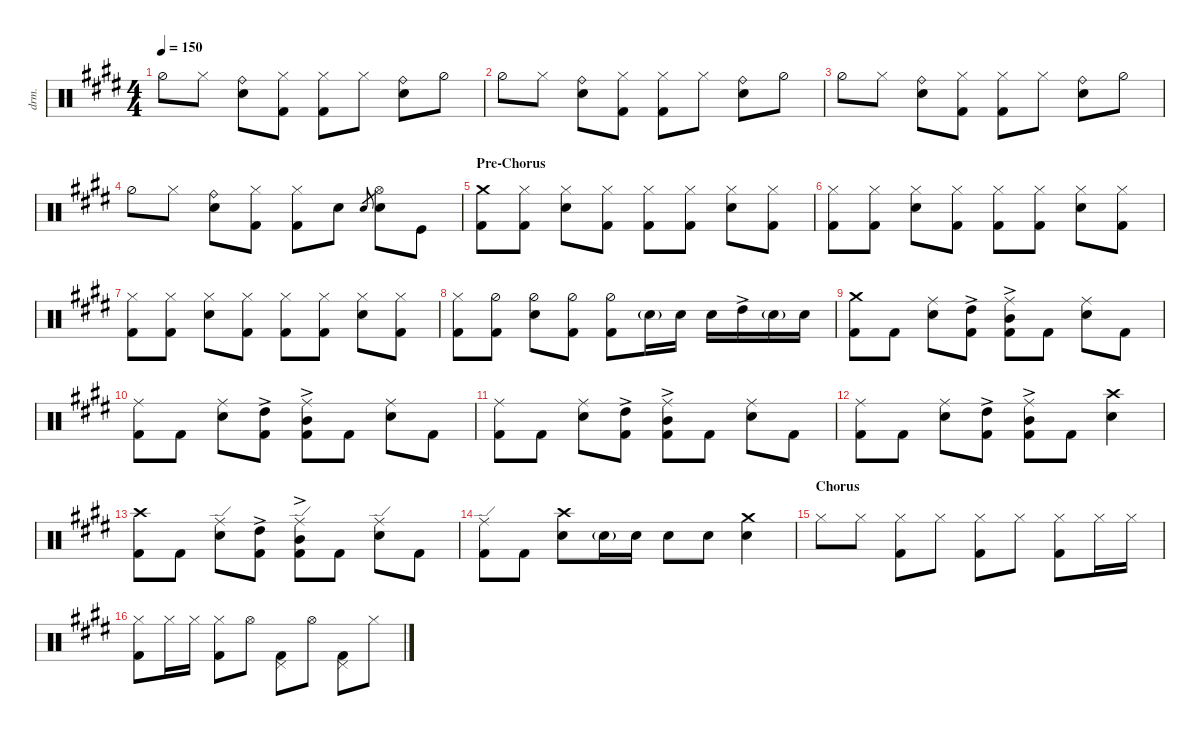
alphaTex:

\defaultSystemsLayout 4
\hideDynamics
\bracketExtendMode nobrackets
\otherSystemsTrackNameOrientation horizontal
\track ("Drums - S. Copeland" "drm.") {instrument percussion}
\staff {score}
\articulation defaults
\ts (4 4)
\tempo 150
\clef neutral
\ks c#minor "Hi-Hat (half)"{acc forcenatural}.8{dy mf beam Down} "Hi-Hat (closed)"{acc forcenatural}.8{beam Down}
("Ride (bell)"{acc forcenatural} "Snare (hit) 2"{acc forcenatural}).8{beam Down} ("Hi-Hat (closed)"{acc forcenatural} "Kick (hit) 2"{acc forcenatural}).8{beam Down} ("Hi-Hat (closed)"{acc forcenatural} "Kick (hit) 2"{acc forcenatural}).8{beam Down} "Hi-Hat (closed)"{acc forcenatural}.8{beam Down} ("Ride (bell)"{acc forcenatural} "Snare (hit) 2"{acc forcenatural}).8{beam Down} "Hi-Hat (half)"{acc forcenatural}.8{beam Down} |
"Hi-Hat (half)"{acc forcenatural}.8{beam Down} "Hi-Hat (closed)"{acc forcenatural}.8{beam Down} ("Ride (bell)"{acc forcenatural} "Snare (hit) 2"{acc forcenatural}).8{beam Down} ("Hi-Hat (closed)"{acc forcenatural} "Kick (hit) 2"{acc forcenatural}).8{beam Down} ("Hi-Hat (closed)"{acc forcenatural} "Kick (hit) 2"{acc forcenatural}).8{beam Down} "Hi-Hat (closed)"{acc forcenatural}.8{beam Down} ("Ride (bell)"{acc forcenatural} "Snare (hit) 2"{acc forcenatural}).8{beam Down} "Hi-Hat (half)"{acc forcenatural}.8{beam Down} |
"Hi-Hat (half)"{acc forcenatural}.8{beam Down} "Hi-Hat (closed)"{acc forcenatural}.8{beam Down} ("Ride (bell)"{acc forcenatural} "Snare (hit) 2"{acc forcenatural}).8{beam Down} ("Hi-Hat (closed)"{acc forcenatural} "Kick (hit) 2"{acc forcenatural}).8{beam Down} ("Hi-Hat (closed)"{acc forcenatural} "Kick (hit) 2"{acc forcenatural}).8{beam Down} "Hi-Hat (closed)"{acc forcenatural}.8{beam Down} ("Ride (bell)"{acc forcenatural} "Snare (hit) 2"{acc forcenatural}).8{beam Down} "Hi-Hat (half)"{acc forcenatural}.8{beam Down} |
"Hi-Hat (half)"{acc forcenatural}.8{beam Down} "Hi-Hat (closed)"{acc forcenatural}.8{beam Down} ("Ride (bell)"{acc forcenatural} "Snare (hit) 2"{acc forcenatural}).8{beam Down} ("Hi-Hat (closed)"{acc forcenatural} "Kick (hit) 2"{acc forcenatural}).8{beam Down} ("Hi-Hat (closed)"{acc forcenatural} "Kick (hit) 2"{acc forcenatural}).8{beam Down} "Snare (hit) 2"{acc forcenatural}.8{beam Down} "Snare (hit) 2"{acc forcenatural}.8{gr beam Up} ("Snare (hit) 2"{acc forcenatural} "Hi-Hat (open)"{acc forcenatural}).8{beam Down} "Kick (hit)"{acc forcenatural}.8{beam Down} |
\section ("" "Pre-Chorus")
("Kick (hit) 2"{acc forcenatural} "Crash medium (hit)"{acc forcenatural}).8{beam Down} ("Kick (hit) 2"{acc forcenatural} "Hi-Hat (closed)"{acc forcenatural}).8{beam Down} ("Hi-Hat (closed)"{acc forcenatural} "Snare (hit) 2"{acc forcenatural}).8{beam Down} ("Hi-Hat (closed)"{acc forcenatural} "Kick (hit) 2"{acc forcenatural}).8{beam Down} ("Kick (hit) 2"{acc forcenatural} "Hi-Hat (closed)"{acc forcenatural}).8{beam Down} ("Kick (hit) 2"{acc forcenatural} "Hi-Hat (closed)"{acc forcenatural}).8{beam Down} ("Hi-Hat (closed)"{acc forcenatural} "Snare (hit) 2"{acc forcenatural}).8{beam Down} ("Hi-Hat (closed)"{acc forcenatural} "Kick (hit) 2"{acc forcenatural}).8{beam Down} |
("Kick (hit) 2"{acc forcenatural} "Hi-Hat (closed)"{acc forcenatural}).8{beam Down} ("Kick (hit) 2"{acc forcenatural} "Hi-Hat (closed)"{acc forcenatural}).8{beam Down} ("Hi-Hat (closed)"{acc forcenatural} "Snare (hit) 2"{acc forcenatural}).8{beam Down} ("Hi-Hat (closed)"{acc forcenatural} "Kick (hit) 2"{acc forcenatural}).8{beam Down} ("Kick (hit) 2"{acc forcenatural} "Hi-Hat (closed)"{acc forcenatural}).8{beam Down} ("Kick (hit) 2"{acc forcenatural} "Hi-Hat (closed)"{acc forcenatural}).8{beam Down} ("Hi-Hat (closed)"{acc forcenatural} "Snare (hit) 2"{acc forcenatural}).8{beam Down} ("Hi-Hat (closed)"{acc forcenatural} "Kick (hit) 2"{acc forcenatural}).8{beam Down} |
("Kick (hit) 2"{acc forcenatural} "Hi-Hat (closed)"{acc forcenatural}).8{beam Down} ("Kick (hit) 2"{acc forcenatural} "Hi-Hat (closed)"{acc forcenatural}).8{beam Down} ("Hi-Hat (closed)"{acc forcenatural} "Snare (hit) 2"{acc forcenatural}).8{beam Down} ("Hi-Hat (closed)"{acc forcenatural} "Kick (hit) 2"{acc forcenatural}).8{beam Down} ("Kick (hit) 2"{acc forcenatural} "Hi-Hat (closed)"{acc forcenatural}).8{beam Down} ("Kick (hit) 2"{acc forcenatural} "Hi-Hat (closed)"{acc forcenatural}).8{beam Down} ("Hi-Hat (closed)"{acc forcenatural} "Snare (hit) 2"{acc forcenatural}).8{beam Down} ("Hi-Hat (closed)"{acc forcenatural} "Kick (hit) 2"{acc forcenatural}).8{beam Down} |
("Hi-Hat (closed)"{acc forcenatural} "Kick (hit) 2"{acc forcenatural}).8{beam Down} ("Kick (hit) 2"{acc forcenatural} "Hi-Hat (half)"{acc forcenatural}).8{beam Down} ("Snare (hit) 2"{acc forcenatural} "Hi-Hat (half)"{acc forcenatural}).8{beam Down} ("Kick (hit) 2"{acc forcenatural} "Hi-Hat (half)"{acc forcenatural}).8{beam Down} ("Kick (hit) 2"{acc forcenatural} "Hi-Hat (half)"{acc forcenatural}).8{beam Down} "Snare (hit) 2"{g acc forcenatural}.16{beam Down} "Snare (hit) 2"{acc forcenatural}.16{beam Down} "Snare (hit) 2"{acc forcenatural}.16{beam Down} "High Tom (hit)"{ac acc forcenatural}.16{beam Down} "Snare (hit) 2"{g acc forcenatural}.16{beam Down} "Snare (hit) 2"{acc forcenatural}.16{beam Down} |
("Kick (hit) 2"{acc forcenatural} "Crash medium (hit)"{acc forcenatural}).8{beam Down} "Kick (hit) 2"{acc forcenatural}.8{beam Down} ("Snare (hit) 2"{acc forcenatural} "Ride (middle)"{acc forcenatural}).8{beam Down} ("High Tom (hit)"{ac acc forcenatural} "Kick (hit) 2"{acc forcenatural}).8{beam Down} ("Ride (middle)"{acc forcenatural} "Mid Tom (hit)"{ac acc forcenatural} "Kick (hit) 2"{acc forcenatural}).8{beam Down} "Kick (hit) 2"{acc forcenatural}.8{beam Down} ("Snare (hit) 2"{acc forcenatural} "Ride (middle)"{acc forcenatural}).8{beam Down} "Kick (hit) 2"{acc forcenatural}.8{beam Down} |
("Kick (hit) 2"{acc forcenatural} "Ride (middle)"{acc forcenatural}).8{beam Down} "Kick (hit) 2"{acc forcenatural}.8{beam Down} ("Snare (hit) 2"{acc forcenatural} "Ride (middle)"{acc forcenatural}).8{beam Down} ("High Tom (hit)"{ac acc forcenatural} "Kick (hit) 2"{acc forcenatural}).8{beam Down} ("Ride (middle)"{acc forcenatural} "Mid Tom (hit)"{ac acc forcenatural} "Kick (hit) 2"{acc forcenatural}).8{beam Down} "Kick (hit) 2"{acc forcenatural}.8{beam Down} ("Snare (hit) 2"{acc forcenatural} "Ride (middle)"{acc forcenatural}).8{beam Down} "Kick (hit) 2"{acc forcenatural}.8{beam Down} |
("Kick (hit) 2"{acc forcenatural} "Ride (middle)"{acc forcenatural}).8{beam Down} "Kick (hit) 2"{acc forcenatural}.8{beam Down} ("Snare (hit) 2"{acc forcenatural} "Ride (middle)"{acc forcenatural}).8{beam Down} ("High Tom (hit)"{ac acc forcenatural} "Kick (hit) 2"{acc forcenatural}).8{beam Down} ("Ride (middle)"{acc forcenatural} "Mid Tom (hit)"{ac acc forcenatural} "Kick (hit) 2"{acc forcenatural}).8{beam Down} "Kick (hit) 2"{acc forcenatural}.8{beam Down} ("Snare (hit) 2"{acc forcenatural} "Ride (middle)"{acc forcenatural}).8{beam Down} "Kick (hit) 2"{acc forcenatural}.8{beam Down} |
("Kick (hit) 2"{acc forcenatural} "Ride (middle)"{acc forcenatural}).8{beam Down} "Kick (hit) 2"{acc forcenatural}.8{beam Down} ("Snare (hit) 2"{acc forcenatural} "Ride (middle)"{acc forcenatural}).8{beam Down} ("High Tom (hit)"{ac acc forcenatural} "Kick (hit) 2"{acc forcenatural}).8{beam Down} ("Ride (middle)"{acc forcenatural} "Mid Tom (hit)"{ac acc forcenatural} "Kick (hit) 2"{acc forcenatural}).8{beam Down} "Kick (hit) 2"{acc forcenatural}.8{beam Down} ("Snare (hit) 2"{acc forcenatural} "Crash high (hit)"{acc forcenatural}).4{beam Down} |
("Kick (hit) 2"{acc forcenatural} "Crash high (hit)"{acc forcenatural}).8{beam Down} "Kick (hit) 2"{acc forcenatural}.8{beam Down} ("Snare (hit) 2"{acc forcenatural} "Ride (edge)"{acc forcenatural}).8{beam Down} ("High Tom (hit)"{ac acc forcenatural} "Kick (hit) 2"{acc forcenatural}).8{beam Down} ("Ride (edge)"{acc forcenatural} "Mid Tom (hit)"{ac acc forcenatural} "Kick (hit) 2"{acc forcenatural}).8{beam Down} "Kick (hit) 2"{acc forcenatural}.8{beam Down} ("Snare (hit) 2"{acc forcenatural} "Ride (edge)"{acc forcenatural}).8{beam Down} "Kick (hit) 2"{acc forcenatural}.8{beam Down} |
("Ride (edge)"{acc forcenatural} "Kick (hit) 2"{acc forcenatural}).8{beam Down} "Kick (hit) 2"{acc forcenatural}.8{beam Down} ("Snare (hit) 2"{acc forcenatural} "Crash high (hit)"{acc forcenatural}).8{beam Down} "Snare (hit) 2"{g acc forcenatural}.16{beam Down} "Snare (hit) 2"{acc forcenatural}.16{beam Down} "Snare (hit) 2"{acc forcenatural}.8{beam Down} "Snare (hit) 2"{acc forcenatural}.8{beam Down} ("Snare (hit) 2"{acc forcenatural} "Crash medium (hit)"{acc forcenatural}).4{beam Down} |
\section ("" "Chorus")
"Hi-Hat (closed)"{acc forcenatural}.8{beam Down} "Hi-Hat (closed)"{acc forcenatural}.8{beam Down} ("Hi-Hat (closed)"{acc forcenatural} "Kick (hit) 2"{acc forcenatural}).8{beam Down} "Hi-Hat (closed)"{acc forcenatural}.8{beam Down} ("Hi-Hat (closed)"{acc forcenatural} "Kick (hit) 2"{acc forcenatural}).8{beam Down} "Hi-Hat (closed)"{acc forcenatural}.8{beam Down} ("Hi-Hat (closed)"{acc forcenatural} "Kick (hit) 2"{acc forcenatural}).8{beam Down} "Hi-Hat (closed)"{acc forcenatural}.16{beam Down} "Hi-Hat (closed)"{acc forcenatural}.16{beam Down} |
("Hi-Hat (closed)"{acc forcenatural} "Kick (hit) 2"{acc forcenatural}).8{beam Down} "Hi-Hat (closed)"{acc forcenatural}.16{beam Down} "Hi-Hat (closed)"{acc forcenatural}.16{beam Down} ("Hi-Hat (closed)"{acc forcenatural} "Kick (hit) 2"{acc forcenatural}).8{beam Down} "Hi-Hat (open)"{acc forcenatural}.8{beam Down} ("Pedal Hi-Hat (hit)"{acc forcenatural} "Kick (hit) 2"{acc forcenatural}).8{beam Down} "Hi-Hat (open)"{acc forcenatural}.8{beam Down} ("Pedal Hi-Hat (hit)"{acc forcenatural} "Kick (hit) 2"{acc forcenatural}).8{beam Down} "Hi-Hat (closed)"{acc forcenatural}.8{beam Down}
